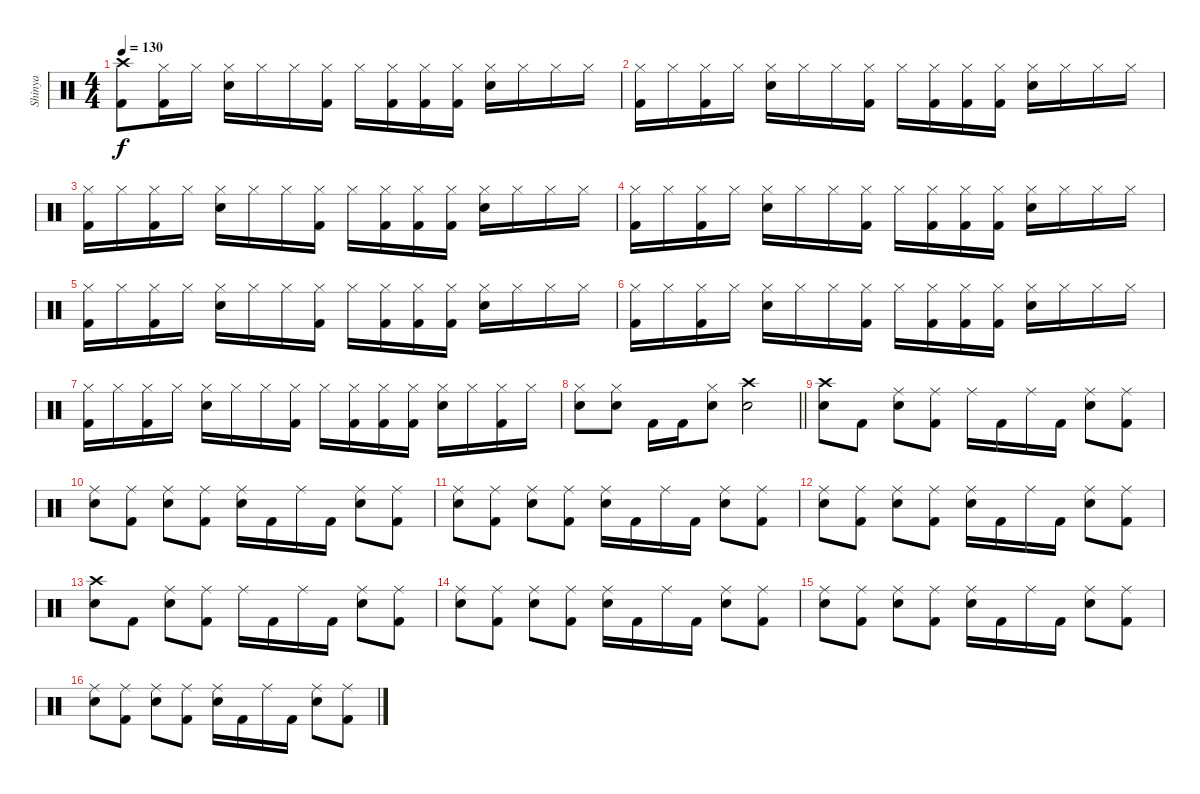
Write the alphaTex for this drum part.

\track ("Shinya" "Shinya") {instrument percussion}
\staff {score}
\articulation defaults
\ts (4 4)
\tempo 130
\clef neutral
\ks c
("Crash high (hit)" "Kick (hit) 2").8{dy f} ("Hi-Hat (closed)" "Kick (hit) 2").16 "Hi-Hat (closed)".16 ("Hi-Hat (closed)" "Electric Snare (hit)").16 "Hi-Hat (closed)".16 "Hi-Hat (closed)".16 ("Hi-Hat (closed)" "Kick (hit) 2").16 "Hi-Hat (closed)".16 ("Hi-Hat (closed)" "Kick (hit) 2").16 ("Hi-Hat (closed)" "Kick (hit) 2").16 ("Hi-Hat (closed)" "Kick (hit) 2").16 ("Hi-Hat (closed)" "Electric Snare (hit)").16 "Hi-Hat (closed)".16 "Hi-Hat (closed)".16 "Hi-Hat (closed)".16 |
("Hi-Hat (closed)" "Kick (hit) 2").16 "Hi-Hat (closed)".16 ("Hi-Hat (closed)" "Kick (hit) 2").16 "Hi-Hat (closed)".16 ("Hi-Hat (closed)" "Electric Snare (hit)").16 "Hi-Hat (closed)".16 "Hi-Hat (closed)".16 ("Hi-Hat (closed)" "Kick (hit) 2").16 "Hi-Hat (closed)".16 ("Hi-Hat (closed)" "Kick (hit) 2").16 ("Hi-Hat (closed)" "Kick (hit) 2").16 ("Hi-Hat (closed)" "Kick (hit) 2").16 ("Hi-Hat (closed)" "Electric Snare (hit)").16 "Hi-Hat (closed)".16 "Hi-Hat (closed)".16 "Hi-Hat (closed)".16 |
("Hi-Hat (closed)" "Kick (hit) 2").16 "Hi-Hat (closed)".16 ("Hi-Hat (closed)" "Kick (hit) 2").16 "Hi-Hat (closed)".16 ("Hi-Hat (closed)" "Electric Snare (hit)").16 "Hi-Hat (closed)".16 "Hi-Hat (closed)".16 ("Hi-Hat (closed)" "Kick (hit) 2").16 "Hi-Hat (closed)".16 ("Hi-Hat (closed)" "Kick (hit) 2").16 ("Hi-Hat (closed)" "Kick (hit) 2").16 ("Hi-Hat (closed)" "Kick (hit) 2").16 ("Hi-Hat (closed)" "Electric Snare (hit)").16 "Hi-Hat (closed)".16 "Hi-Hat (closed)".16 "Hi-Hat (closed)".16 |
("Hi-Hat (closed)" "Kick (hit) 2").16 "Hi-Hat (closed)".16 ("Hi-Hat (closed)" "Kick (hit) 2").16 "Hi-Hat (closed)".16 ("Hi-Hat (closed)" "Electric Snare (hit)").16 "Hi-Hat (closed)".16 "Hi-Hat (closed)".16 ("Hi-Hat (closed)" "Kick (hit) 2").16 "Hi-Hat (closed)".16 ("Hi-Hat (closed)" "Kick (hit) 2").16 ("Hi-Hat (closed)" "Kick (hit) 2").16 ("Hi-Hat (closed)" "Kick (hit) 2").16 ("Hi-Hat (closed)" "Electric Snare (hit)").16 "Hi-Hat (closed)".16 "Hi-Hat (closed)".16 "Hi-Hat (closed)".16 |
("Hi-Hat (closed)" "Kick (hit) 2").16 "Hi-Hat (closed)".16 ("Hi-Hat (closed)" "Kick (hit) 2").16 "Hi-Hat (closed)".16 ("Hi-Hat (closed)" "Electric Snare (hit)").16 "Hi-Hat (closed)".16 "Hi-Hat (closed)".16 ("Hi-Hat (closed)" "Kick (hit) 2").16 "Hi-Hat (closed)".16 ("Hi-Hat (closed)" "Kick (hit) 2").16 ("Hi-Hat (closed)" "Kick (hit) 2").16 ("Hi-Hat (closed)" "Kick (hit) 2").16 ("Hi-Hat (closed)" "Electric Snare (hit)").16 "Hi-Hat (closed)".16 "Hi-Hat (closed)".16 "Hi-Hat (closed)".16 |
("Hi-Hat (closed)" "Kick (hit) 2").16 "Hi-Hat (closed)".16 ("Hi-Hat (closed)" "Kick (hit) 2").16 "Hi-Hat (closed)".16 ("Hi-Hat (closed)" "Electric Snare (hit)").16 "Hi-Hat (closed)".16 "Hi-Hat (closed)".16 ("Hi-Hat (closed)" "Kick (hit) 2").16 "Hi-Hat (closed)".16 ("Hi-Hat (closed)" "Kick (hit) 2").16 ("Hi-Hat (closed)" "Kick (hit) 2").16 ("Hi-Hat (closed)" "Kick (hit) 2").16 ("Hi-Hat (closed)" "Electric Snare (hit)").16 "Hi-Hat (closed)".16 "Hi-Hat (closed)".16 "Hi-Hat (closed)".16 |
("Hi-Hat (closed)" "Kick (hit) 2").16 "Hi-Hat (closed)".16 ("Hi-Hat (closed)" "Kick (hit) 2").16 "Hi-Hat (closed)".16 ("Hi-Hat (closed)" "Electric Snare (hit)").16 "Hi-Hat (closed)".16 "Hi-Hat (closed)".16 ("Hi-Hat (closed)" "Kick (hit) 2").16 "Hi-Hat (closed)".16 ("Hi-Hat (closed)" "Kick (hit) 2").16 ("Hi-Hat (closed)" "Kick (hit) 2").16 ("Hi-Hat (closed)" "Kick (hit) 2").16 ("Hi-Hat (closed)" "Electric Snare (hit)").16 "Hi-Hat (closed)".16 ("Hi-Hat (closed)" "Kick (hit) 2").16 "Hi-Hat (closed)".16 |
\barLineRight lightlight
("Hi-Hat (closed)" "Electric Snare (hit)").8 ("Hi-Hat (closed)" "Electric Snare (hit)").8 "Kick (hit) 2".16 "Kick (hit) 2".16 ("Hi-Hat (closed)" "Electric Snare (hit)").8 ("Crash high (hit)" "Electric Snare (hit)").2 |
("Crash high (hit)" "Electric Snare (hit)").8 "Kick (hit) 2".8 ("Ride (middle)" "Electric Snare (hit)").8 ("Ride (middle)" "Kick (hit) 2").8 "Ride (middle)".16 "Kick (hit) 2".16 "Ride (middle)".16 "Kick (hit) 2".16 ("Ride (middle)" "Electric Snare (hit)").8 ("Ride (middle)" "Kick (hit) 2").8 |
("Ride (middle)" "Electric Snare (hit)").8 ("Ride (middle)" "Kick (hit) 2").8 ("Ride (middle)" "Electric Snare (hit)").8 ("Ride (middle)" "Kick (hit) 2").8 ("Ride (middle)" "Electric Snare (hit)").16 "Kick (hit) 2".16 "Ride (middle)".16 "Kick (hit) 2".16 ("Ride (middle)" "Electric Snare (hit)").8 ("Ride (middle)" "Kick (hit) 2").8 |
("Ride (middle)" "Electric Snare (hit)").8 ("Ride (middle)" "Kick (hit) 2").8 ("Ride (middle)" "Electric Snare (hit)").8 ("Ride (middle)" "Kick (hit) 2").8 ("Ride (middle)" "Electric Snare (hit)").16 "Kick (hit) 2".16 "Ride (middle)".16 "Kick (hit) 2".16 ("Ride (middle)" "Electric Snare (hit)").8 ("Ride (middle)" "Kick (hit) 2").8 |
("Ride (middle)" "Electric Snare (hit)").8 ("Ride (middle)" "Kick (hit) 2").8 ("Ride (middle)" "Electric Snare (hit)").8 ("Ride (middle)" "Kick (hit) 2").8 ("Ride (middle)" "Electric Snare (hit)").16 "Kick (hit) 2".16 "Ride (middle)".16 "Kick (hit) 2".16 ("Ride (middle)" "Electric Snare (hit)").8 ("Ride (middle)" "Kick (hit) 2").8 |
("Crash high (hit)" "Electric Snare (hit)").8 "Kick (hit) 2".8 ("Ride (middle)" "Electric Snare (hit)").8 ("Ride (middle)" "Kick (hit) 2").8 "Ride (middle)".16 "Kick (hit) 2".16 "Ride (middle)".16 "Kick (hit) 2".16 ("Ride (middle)" "Electric Snare (hit)").8 ("Ride (middle)" "Kick (hit) 2").8 |
("Ride (middle)" "Electric Snare (hit)").8 ("Ride (middle)" "Kick (hit) 2").8 ("Ride (middle)" "Electric Snare (hit)").8 ("Ride (middle)" "Kick (hit) 2").8 ("Ride (middle)" "Electric Snare (hit)").16 "Kick (hit) 2".16 "Ride (middle)".16 "Kick (hit) 2".16 ("Ride (middle)" "Electric Snare (hit)").8 ("Ride (middle)" "Kick (hit) 2").8 |
("Ride (middle)" "Electric Snare (hit)").8 ("Ride (middle)" "Kick (hit) 2").8 ("Ride (middle)" "Electric Snare (hit)").8 ("Ride (middle)" "Kick (hit) 2").8 ("Ride (middle)" "Electric Snare (hit)").16 "Kick (hit) 2".16 "Ride (middle)".16 "Kick (hit) 2".16 ("Ride (middle)" "Electric Snare (hit)").8 ("Ride (middle)" "Kick (hit) 2").8 |
("Ride (middle)" "Electric Snare (hit)").8 ("Ride (middle)" "Kick (hit) 2").8 ("Ride (middle)" "Electric Snare (hit)").8 ("Ride (middle)" "Kick (hit) 2").8 ("Ride (middle)" "Electric Snare (hit)").16 "Kick (hit) 2".16 "Ride (middle)".16 "Kick (hit) 2".16 ("Ride (middle)" "Electric Snare (hit)").8 ("Ride (middle)" "Kick (hit) 2").8
